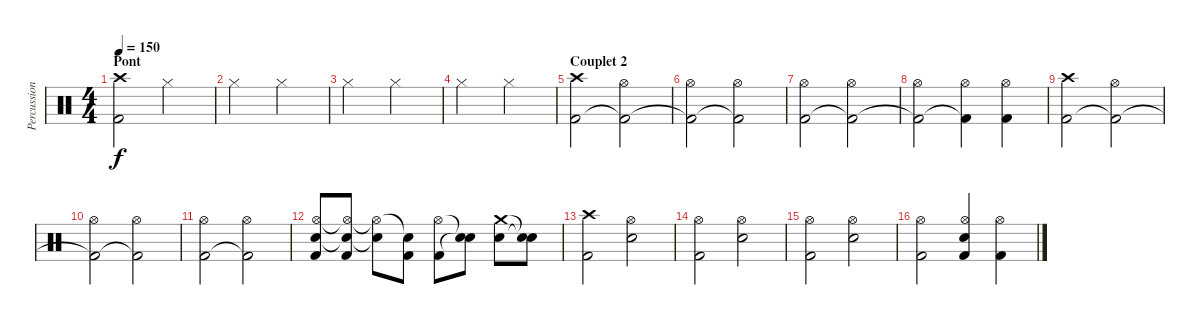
\track ("Percussions" "Percussion") {instrument percussion}
\staff {score}
\articulation defaults
\ts (4 4)
\section ("" "Pont")
\tempo 150
\clef neutral
\ks c
("Crash high (hit)" "Kick (hit) 2").2{dy f} "Hi-Hat (closed)".2 |
"Hi-Hat (closed)".2 "Hi-Hat (closed)".2 |
"Hi-Hat (closed)".2 "Hi-Hat (closed)".2 |
"Hi-Hat (closed)".2 "Hi-Hat (closed)".2 |
\section ("" "Couplet 2")
("Crash high (hit)" "Kick (hit) 2").2 ("Hi-Hat (open)" "Kick (hit) 2"{t}).2 |
("Hi-Hat (open)" "Kick (hit) 2"{t}).2 ("Hi-Hat (open)" "Kick (hit) 2"{t}).2 |
("Hi-Hat (open)" "Kick (hit) 2").2 ("Hi-Hat (open)" "Kick (hit) 2"{t}).2 |
("Hi-Hat (open)" "Kick (hit) 2"{t}).2 ("Hi-Hat (open)" "Kick (hit) 2"{t}).4 ("Hi-Hat (open)" "Kick (hit) 2").4 |
("Crash high (hit)" "Kick (hit) 2").2 ("Hi-Hat (open)" "Kick (hit) 2"{t}).2 |
("Hi-Hat (open)" "Kick (hit) 2"{t}).2 ("Hi-Hat (open)" "Kick (hit) 2"{t}).2 |
("Hi-Hat (open)" "Kick (hit) 2").2 ("Hi-Hat (open)" "Kick (hit) 2"{t}).2 |
("Hi-Hat (open)" "Snare (hit) 2" "Kick (hit) 2").8 ("Hi-Hat (open)"{t} "Snare (hit)"{t} "Kick (hit) 2").8 ("Hi-Hat (open)"{t} "Snare (hit)"{t}).8 ("Snare (hit)"{t} "Kick (hit) 2").8 ("Hi-Hat (open)" "Kick (hit) 2").8 ("Snare (hit)"{t} "Snare (hit)"{t}).8 ("Crash medium (hit)" "Snare (hit) 2").8 ("Snare (hit)"{t} "Snare (hit)"{t}).8 |
("Crash high (hit)" "Kick (hit) 2").2 ("Hi-Hat (open)" "Snare (hit) 2").2 |
("Hi-Hat (open)" "Kick (hit) 2").2 ("Hi-Hat (open)" "Snare (hit) 2").2 |
("Hi-Hat (open)" "Kick (hit) 2").2 ("Hi-Hat (open)" "Snare (hit) 2").2 |
("Hi-Hat (open)" "Kick (hit) 2").2 ("Hi-Hat (open)" "Snare (hit) 2" "Kick (hit) 2").4 ("Hi-Hat (open)" "Kick (hit) 2").4
